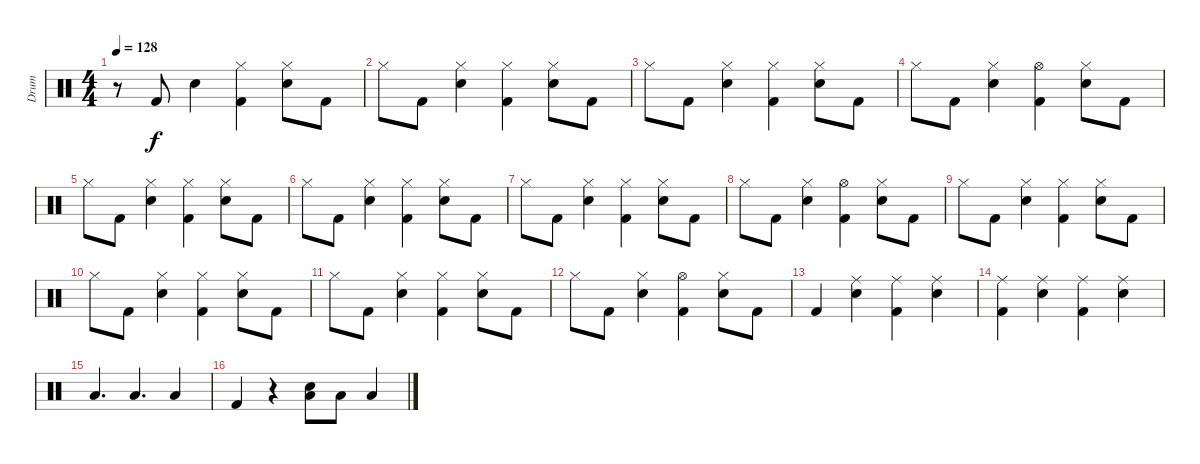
\track ("Drum" "Drum") {instrument percussion}
\staff {score}
\articulation defaults
\ts (4 4)
\tempo 128
\clef neutral
\ks c
r.8{dy f} "Kick (hit) 2".8 "Snare (hit) 2".4 ("Hi-Hat (closed)" "Kick (hit) 2").4 ("Hi-Hat (closed)" "Snare (hit) 2").8 "Kick (hit) 2".8 |
"Hi-Hat (closed)".8 "Kick (hit) 2".8 ("Hi-Hat (closed)" "Snare (hit) 2").4 ("Hi-Hat (closed)" "Kick (hit) 2").4 ("Hi-Hat (closed)" "Snare (hit) 2").8 "Kick (hit) 2".8 |
"Hi-Hat (closed)".8 "Kick (hit) 2".8 ("Hi-Hat (closed)" "Snare (hit) 2").4 ("Hi-Hat (closed)" "Kick (hit) 2").4 ("Hi-Hat (closed)" "Snare (hit) 2").8 "Kick (hit) 2".8 |
"Hi-Hat (closed)".8 "Kick (hit) 2".8 ("Hi-Hat (closed)" "Snare (hit) 2").4 ("Hi-Hat (open)" "Kick (hit) 2").4 ("Hi-Hat (closed)" "Snare (hit) 2").8 "Kick (hit) 2".8 |
"Hi-Hat (closed)".8 "Kick (hit) 2".8 ("Hi-Hat (closed)" "Snare (hit) 2").4 ("Hi-Hat (closed)" "Kick (hit) 2").4 ("Hi-Hat (closed)" "Snare (hit) 2").8 "Kick (hit) 2".8 |
"Hi-Hat (closed)".8 "Kick (hit) 2".8 ("Hi-Hat (closed)" "Snare (hit) 2").4 ("Hi-Hat (closed)" "Kick (hit) 2").4 ("Hi-Hat (closed)" "Snare (hit) 2").8 "Kick (hit) 2".8 |
"Hi-Hat (closed)".8 "Kick (hit) 2".8 ("Hi-Hat (closed)" "Snare (hit) 2").4 ("Hi-Hat (closed)" "Kick (hit) 2").4 ("Hi-Hat (closed)" "Snare (hit) 2").8 "Kick (hit) 2".8 |
"Hi-Hat (closed)".8 "Kick (hit) 2".8 ("Hi-Hat (closed)" "Snare (hit) 2").4 ("Hi-Hat (open)" "Kick (hit) 2").4 ("Hi-Hat (closed)" "Snare (hit) 2").8 "Kick (hit) 2".8 |
"Hi-Hat (closed)".8 "Kick (hit) 2".8 ("Hi-Hat (closed)" "Snare (hit) 2").4 ("Hi-Hat (closed)" "Kick (hit) 2").4 ("Hi-Hat (closed)" "Snare (hit) 2").8 "Kick (hit) 2".8 |
"Hi-Hat (closed)".8 "Kick (hit) 2".8 ("Hi-Hat (closed)" "Snare (hit) 2").4 ("Hi-Hat (closed)" "Kick (hit) 2").4 ("Hi-Hat (closed)" "Snare (hit) 2").8 "Kick (hit) 2".8 |
"Hi-Hat (closed)".8 "Kick (hit) 2".8 ("Hi-Hat (closed)" "Snare (hit) 2").4 ("Hi-Hat (closed)" "Kick (hit) 2").4 ("Hi-Hat (closed)" "Snare (hit) 2").8 "Kick (hit) 2".8 |
"Hi-Hat (closed)".8 "Kick (hit) 2".8 ("Hi-Hat (closed)" "Snare (hit) 2").4 ("Hi-Hat (open)" "Kick (hit) 2").4 ("Hi-Hat (closed)" "Snare (hit) 2").8 "Kick (hit) 2".8 |
"Kick (hit) 2".4 ("Ride (middle)" "Snare (hit) 2").4 ("Ride (middle)" "Kick (hit) 2").4 ("Ride (middle)" "Snare (hit) 2").4 |
("Ride (middle)" "Kick (hit) 2").4 ("Ride (middle)" "Snare (hit) 2").4 ("Ride (middle)" "Kick (hit) 2").4 ("Ride (middle)" "Snare (hit) 2").4 |
"Low Tom (hit)".4{d} "Low Tom (hit)".4{d} "Low Tom (hit)".4 |
"Kick (hit) 2".4 r.4 ("Low Tom (hit)" "Snare (hit) 2").8 "Low Tom (hit)".8 "Low Tom (hit)".4
